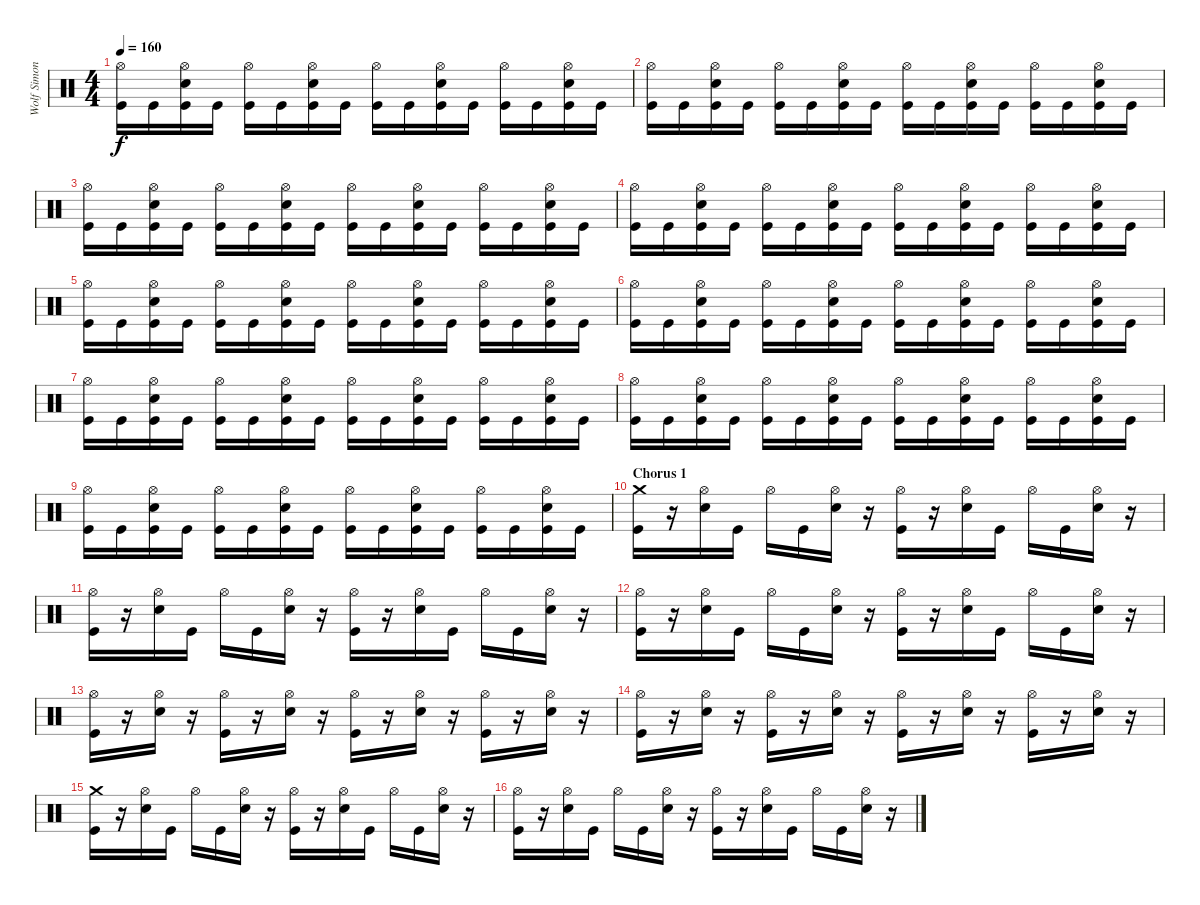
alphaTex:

\track ("Wolf Simons" "Wolf Simon") {instrument percussion}
\staff {score}
\articulation defaults
\ts (4 4)
\tempo 160
\clef neutral
\ks c
("Hi-Hat (open)" "Kick (hit)").16{dy f} "Kick (hit)".16 ("Hi-Hat (open)" "Electric Snare (hit)" "Kick (hit)").16 "Kick (hit)".16 ("Hi-Hat (open)" "Kick (hit)").16 "Kick (hit)".16 ("Hi-Hat (open)" "Electric Snare (hit)" "Kick (hit)").16 "Kick (hit)".16 ("Hi-Hat (open)" "Kick (hit)").16 "Kick (hit)".16 ("Hi-Hat (open)" "Electric Snare (hit)" "Kick (hit)").16 "Kick (hit)".16 ("Hi-Hat (open)" "Kick (hit)").16 "Kick (hit)".16 ("Hi-Hat (open)" "Electric Snare (hit)" "Kick (hit)").16 "Kick (hit)".16 |
("Hi-Hat (open)" "Kick (hit)").16 "Kick (hit)".16 ("Hi-Hat (open)" "Electric Snare (hit)" "Kick (hit)").16 "Kick (hit)".16 ("Hi-Hat (open)" "Kick (hit)").16 "Kick (hit)".16 ("Hi-Hat (open)" "Electric Snare (hit)" "Kick (hit)").16 "Kick (hit)".16 ("Hi-Hat (open)" "Kick (hit)").16 "Kick (hit)".16 ("Hi-Hat (open)" "Electric Snare (hit)" "Kick (hit)").16 "Kick (hit)".16 ("Hi-Hat (open)" "Kick (hit)").16 "Kick (hit)".16 ("Hi-Hat (open)" "Electric Snare (hit)" "Kick (hit)").16 "Kick (hit)".16 |
("Hi-Hat (open)" "Kick (hit)").16 "Kick (hit)".16 ("Hi-Hat (open)" "Electric Snare (hit)" "Kick (hit)").16 "Kick (hit)".16 ("Hi-Hat (open)" "Kick (hit)").16 "Kick (hit)".16 ("Hi-Hat (open)" "Electric Snare (hit)" "Kick (hit)").16 "Kick (hit)".16 ("Hi-Hat (open)" "Kick (hit)").16 "Kick (hit)".16 ("Hi-Hat (open)" "Electric Snare (hit)" "Kick (hit)").16 "Kick (hit)".16 ("Hi-Hat (open)" "Kick (hit)").16 "Kick (hit)".16 ("Hi-Hat (open)" "Electric Snare (hit)" "Kick (hit)").16 "Kick (hit)".16 |
("Hi-Hat (open)" "Kick (hit)").16 "Kick (hit)".16 ("Hi-Hat (open)" "Electric Snare (hit)" "Kick (hit)").16 "Kick (hit)".16 ("Hi-Hat (open)" "Kick (hit)").16 "Kick (hit)".16 ("Hi-Hat (open)" "Electric Snare (hit)" "Kick (hit)").16 "Kick (hit)".16 ("Hi-Hat (open)" "Kick (hit)").16 "Kick (hit)".16 ("Hi-Hat (open)" "Electric Snare (hit)" "Kick (hit)").16 "Kick (hit)".16 ("Hi-Hat (open)" "Kick (hit)").16 "Kick (hit)".16 ("Hi-Hat (open)" "Electric Snare (hit)" "Kick (hit)").16 "Kick (hit)".16 |
("Hi-Hat (open)" "Kick (hit)").16 "Kick (hit)".16 ("Hi-Hat (open)" "Electric Snare (hit)" "Kick (hit)").16 "Kick (hit)".16 ("Hi-Hat (open)" "Kick (hit)").16 "Kick (hit)".16 ("Hi-Hat (open)" "Electric Snare (hit)" "Kick (hit)").16 "Kick (hit)".16 ("Hi-Hat (open)" "Kick (hit)").16 "Kick (hit)".16 ("Hi-Hat (open)" "Electric Snare (hit)" "Kick (hit)").16 "Kick (hit)".16 ("Hi-Hat (open)" "Kick (hit)").16 "Kick (hit)".16 ("Hi-Hat (open)" "Electric Snare (hit)" "Kick (hit)").16 "Kick (hit)".16 |
("Hi-Hat (open)" "Kick (hit)").16 "Kick (hit)".16 ("Hi-Hat (open)" "Electric Snare (hit)" "Kick (hit)").16 "Kick (hit)".16 ("Hi-Hat (open)" "Kick (hit)").16 "Kick (hit)".16 ("Hi-Hat (open)" "Electric Snare (hit)" "Kick (hit)").16 "Kick (hit)".16 ("Hi-Hat (open)" "Kick (hit)").16 "Kick (hit)".16 ("Hi-Hat (open)" "Electric Snare (hit)" "Kick (hit)").16 "Kick (hit)".16 ("Hi-Hat (open)" "Kick (hit)").16 "Kick (hit)".16 ("Hi-Hat (open)" "Electric Snare (hit)" "Kick (hit)").16 "Kick (hit)".16 |
("Hi-Hat (open)" "Kick (hit)").16 "Kick (hit)".16 ("Hi-Hat (open)" "Electric Snare (hit)" "Kick (hit)").16 "Kick (hit)".16 ("Hi-Hat (open)" "Kick (hit)").16 "Kick (hit)".16 ("Hi-Hat (open)" "Electric Snare (hit)" "Kick (hit)").16 "Kick (hit)".16 ("Hi-Hat (open)" "Kick (hit)").16 "Kick (hit)".16 ("Hi-Hat (open)" "Electric Snare (hit)" "Kick (hit)").16 "Kick (hit)".16 ("Hi-Hat (open)" "Kick (hit)").16 "Kick (hit)".16 ("Hi-Hat (open)" "Electric Snare (hit)" "Kick (hit)").16 "Kick (hit)".16 |
("Hi-Hat (open)" "Kick (hit)").16 "Kick (hit)".16 ("Hi-Hat (open)" "Electric Snare (hit)" "Kick (hit)").16 "Kick (hit)".16 ("Hi-Hat (open)" "Kick (hit)").16 "Kick (hit)".16 ("Hi-Hat (open)" "Electric Snare (hit)" "Kick (hit)").16 "Kick (hit)".16 ("Hi-Hat (open)" "Kick (hit)").16 "Kick (hit)".16 ("Hi-Hat (open)" "Electric Snare (hit)" "Kick (hit)").16 "Kick (hit)".16 ("Hi-Hat (open)" "Kick (hit)").16 "Kick (hit)".16 ("Hi-Hat (open)" "Electric Snare (hit)" "Kick (hit)").16 "Kick (hit)".16 |
("Hi-Hat (open)" "Kick (hit)").16 "Kick (hit)".16 ("Hi-Hat (open)" "Electric Snare (hit)" "Kick (hit)").16 "Kick (hit)".16 ("Hi-Hat (open)" "Kick (hit)").16 "Kick (hit)".16 ("Hi-Hat (open)" "Electric Snare (hit)" "Kick (hit)").16 "Kick (hit)".16 ("Hi-Hat (open)" "Kick (hit)").16 "Kick (hit)".16 ("Hi-Hat (open)" "Electric Snare (hit)" "Kick (hit)").16 "Kick (hit)".16 ("Hi-Hat (open)" "Kick (hit)").16 "Kick (hit)".16 ("Hi-Hat (open)" "Electric Snare (hit)" "Kick (hit)").16 "Kick (hit)".16 |
\section ("" "Chorus 1")
("Crash medium (hit)" "Kick (hit)").16 r.16 ("Hi-Hat (open)" "Electric Snare (hit)").16 "Kick (hit)".16 "Hi-Hat (open)".16 "Kick (hit)".16 ("Hi-Hat (open)" "Electric Snare (hit)").16 r.16 ("Hi-Hat (open)" "Kick (hit)").16 r.16 ("Hi-Hat (open)" "Electric Snare (hit)").16 "Kick (hit)".16 "Hi-Hat (open)".16 "Kick (hit)".16 ("Hi-Hat (open)" "Electric Snare (hit)").16 r.16 |
("Hi-Hat (open)" "Kick (hit)").16 r.16 ("Hi-Hat (open)" "Electric Snare (hit)").16 "Kick (hit)".16 "Hi-Hat (open)".16 "Kick (hit)".16 ("Hi-Hat (open)" "Electric Snare (hit)").16 r.16 ("Hi-Hat (open)" "Kick (hit)").16 r.16 ("Hi-Hat (open)" "Electric Snare (hit)").16 "Kick (hit)".16 "Hi-Hat (open)".16 "Kick (hit)".16 ("Hi-Hat (open)" "Electric Snare (hit)").16 r.16 |
("Hi-Hat (open)" "Kick (hit)").16 r.16 ("Hi-Hat (open)" "Electric Snare (hit)").16 "Kick (hit)".16 "Hi-Hat (open)".16 "Kick (hit)".16 ("Hi-Hat (open)" "Electric Snare (hit)").16 r.16 ("Hi-Hat (open)" "Kick (hit)").16 r.16 ("Hi-Hat (open)" "Electric Snare (hit)").16 "Kick (hit)".16 "Hi-Hat (open)".16 "Kick (hit)".16 ("Hi-Hat (open)" "Electric Snare (hit)").16 r.16 |
("Hi-Hat (open)" "Kick (hit)").16 r.16 ("Hi-Hat (open)" "Electric Snare (hit)").16 r.16 ("Hi-Hat (open)" "Kick (hit)").16 r.16 ("Hi-Hat (open)" "Electric Snare (hit)").16 r.16 ("Hi-Hat (open)" "Kick (hit)").16 r.16 ("Hi-Hat (open)" "Electric Snare (hit)").16 r.16 ("Hi-Hat (open)" "Kick (hit)").16 r.16 ("Hi-Hat (open)" "Electric Snare (hit)").16 r.16 |
("Hi-Hat (open)" "Kick (hit)").16 r.16 ("Hi-Hat (open)" "Electric Snare (hit)").16 r.16 ("Hi-Hat (open)" "Kick (hit)").16 r.16 ("Hi-Hat (open)" "Electric Snare (hit)").16 r.16 ("Hi-Hat (open)" "Kick (hit)").16 r.16 ("Hi-Hat (open)" "Electric Snare (hit)").16 r.16 ("Hi-Hat (open)" "Kick (hit)").16 r.16 ("Hi-Hat (open)" "Electric Snare (hit)").16 r.16 |
("Crash medium (hit)" "Kick (hit)").16 r.16 ("Hi-Hat (open)" "Electric Snare (hit)").16 "Kick (hit)".16 "Hi-Hat (open)".16 "Kick (hit)".16 ("Hi-Hat (open)" "Electric Snare (hit)").16 r.16 ("Hi-Hat (open)" "Kick (hit)").16 r.16 ("Hi-Hat (open)" "Electric Snare (hit)").16 "Kick (hit)".16 "Hi-Hat (open)".16 "Kick (hit)".16 ("Hi-Hat (open)" "Electric Snare (hit)").16 r.16 |
("Hi-Hat (open)" "Kick (hit)").16 r.16 ("Hi-Hat (open)" "Electric Snare (hit)").16 "Kick (hit)".16 "Hi-Hat (open)".16 "Kick (hit)".16 ("Hi-Hat (open)" "Electric Snare (hit)").16 r.16 ("Hi-Hat (open)" "Kick (hit)").16 r.16 ("Hi-Hat (open)" "Electric Snare (hit)").16 "Kick (hit)".16 "Hi-Hat (open)".16 "Kick (hit)".16 ("Hi-Hat (open)" "Electric Snare (hit)").16 r.16
